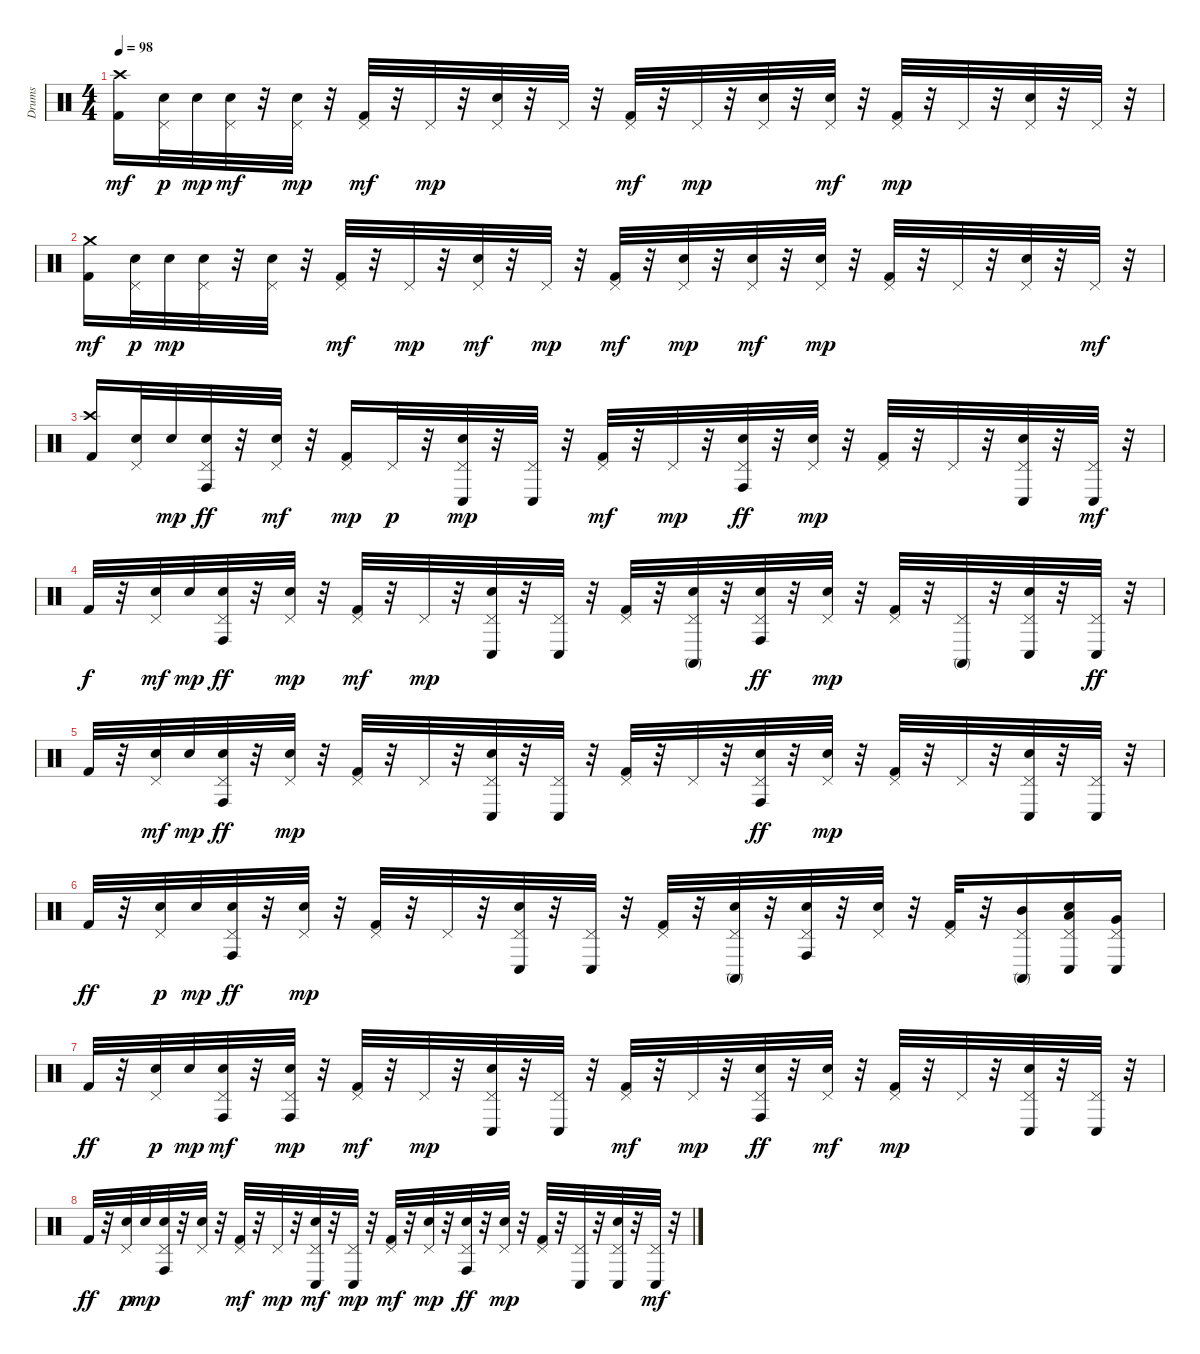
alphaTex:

\track ("Drums" "Drums") {instrument percussion}
\staff {score}
\articulation defaults
\ts (4 4)
\tempo 98
\clef neutral
\ks c
("Kick (hit) 2" "Crash high (hit)").16{dy mf} ("Electric Snare (hit)" "Pedal Hi-Hat (hit)").32{dy p} "Electric Snare (hit)".32{dy mp} ("Electric Snare (hit)" "Pedal Hi-Hat (hit)").32{dy mf} r.32 ("Electric Snare (hit)" "Pedal Hi-Hat (hit)").32{dy mp} r.32 ("Kick (hit) 2" "Pedal Hi-Hat (hit)").32{dy mf} r.32 "Pedal Hi-Hat (hit)".32{dy mp} r.32 ("Electric Snare (hit)" "Pedal Hi-Hat (hit)").32 r.32 "Pedal Hi-Hat (hit)".32 r.32 ("Kick (hit) 2" "Pedal Hi-Hat (hit)").32{dy mf} r.32 "Pedal Hi-Hat (hit)".32{dy mp} r.32 ("Electric Snare (hit)" "Pedal Hi-Hat (hit)").32 r.32 ("Electric Snare (hit)" "Pedal Hi-Hat (hit)").32{dy mf} r.32 ("Kick (hit) 2" "Pedal Hi-Hat (hit)").32{dy mp} r.32 "Pedal Hi-Hat (hit)".32 r.32 ("Electric Snare (hit)" "Pedal Hi-Hat (hit)").32 r.32 "Pedal Hi-Hat (hit)".32 r.32 |
("Kick (hit) 2" "Crash medium (hit)").16{dy mf} ("Electric Snare (hit)" "Pedal Hi-Hat (hit)").32{dy p} "Electric Snare (hit)".32{dy mp} ("Electric Snare (hit)" "Pedal Hi-Hat (hit)").32 r.32 ("Electric Snare (hit)" "Pedal Hi-Hat (hit)").32 r.32 ("Kick (hit) 2" "Pedal Hi-Hat (hit)").32{dy mf} r.32 "Pedal Hi-Hat (hit)".32{dy mp} r.32 ("Electric Snare (hit)" "Pedal Hi-Hat (hit)").32{dy mf} r.32 "Pedal Hi-Hat (hit)".32{dy mp} r.32 ("Kick (hit) 2" "Pedal Hi-Hat (hit)").32{dy mf} r.32 ("Electric Snare (hit)" "Pedal Hi-Hat (hit)").32{dy mp} r.32 ("Electric Snare (hit)" "Pedal Hi-Hat (hit)").32{dy mf} r.32 ("Electric Snare (hit)" "Pedal Hi-Hat (hit)").32{dy mp} r.32 ("Kick (hit) 2" "Pedal Hi-Hat (hit)").32 r.32 "Pedal Hi-Hat (hit)".32 r.32 ("Electric Snare (hit)" "Pedal Hi-Hat (hit)").32 r.32 "Pedal Hi-Hat (hit)".32{dy mf} r.32 |
("Kick (hit) 2" "Crash high (hit)").16 ("Electric Snare (hit)" "Pedal Hi-Hat (hit)").32 "Electric Snare (hit)".32{dy mp} ("Electric Snare (hit)" "Pedal Hi-Hat (hit)" "Conga high (hit)").32{dy ff} r.32 ("Electric Snare (hit)" "Pedal Hi-Hat (hit)").32{dy mf} r.32 ("Kick (hit) 2" "Pedal Hi-Hat (hit)").16{dy mp} "Pedal Hi-Hat (hit)".32{dy p} r.32 ("Electric Snare (hit)" "Pedal Hi-Hat (hit)" "Conga low (hit)").32{dy mp} r.32 ("Pedal Hi-Hat (hit)" "Conga low (hit)").32 r.32 ("Kick (hit) 2" "Pedal Hi-Hat (hit)").32{dy mf} r.32 "Pedal Hi-Hat (hit)".32{dy mp} r.32 ("Electric Snare (hit)" "Pedal Hi-Hat (hit)" "Conga high (hit)").32{dy ff} r.32 ("Electric Snare (hit)" "Pedal Hi-Hat (hit)").32{dy mp} r.32 ("Kick (hit) 2" "Pedal Hi-Hat (hit)").32 r.32 "Pedal Hi-Hat (hit)".32 r.32 ("Electric Snare (hit)" "Pedal Hi-Hat (hit)" "Conga low (hit)").32 r.32 ("Pedal Hi-Hat (hit)" "Conga low (hit)").32{dy mf} r.32 |
"Kick (hit) 2".32{dy f} r.32 ("Electric Snare (hit)" "Pedal Hi-Hat (hit)").32{dy mf} "Electric Snare (hit)".32{dy mp} ("Electric Snare (hit)" "Pedal Hi-Hat (hit)" "Conga high (hit)").32{dy ff} r.32 ("Electric Snare (hit)" "Pedal Hi-Hat (hit)").32{dy mp} r.32 ("Kick (hit) 2" "Pedal Hi-Hat (hit)").32{dy mf} r.32 "Pedal Hi-Hat (hit)".32{dy mp} r.32 ("Electric Snare (hit)" "Pedal Hi-Hat (hit)" "Conga low (hit)").32 r.32 ("Pedal Hi-Hat (hit)" "Conga low (hit)").32 r.32 ("Kick (hit) 2" "Pedal Hi-Hat (hit)").32 r.32 ("Electric Snare (hit)" "Pedal Hi-Hat (hit)" "Conga high (mute)").32{volume 12} r.32 ("Electric Snare (hit)" "Pedal Hi-Hat (hit)" "Conga high (hit)").32{dy ff} r.32 ("Electric Snare (hit)" "Pedal Hi-Hat (hit)").32{dy mp} r.32 ("Kick (hit) 2" "Pedal Hi-Hat (hit)").32 r.32 ("Pedal Hi-Hat (hit)" "Conga high (mute)").32 r.32 ("Electric Snare (hit)" "Pedal Hi-Hat (hit)" "Conga low (hit)").32 r.32 ("Pedal Hi-Hat (hit)" "Conga low (hit)").32{dy ff} r.32 |
"Kick (hit) 2".32 r.32 ("Electric Snare (hit)" "Pedal Hi-Hat (hit)").32{dy mf} "Electric Snare (hit)".32{dy mp} ("Electric Snare (hit)" "Pedal Hi-Hat (hit)" "Conga high (hit)").32{dy ff} r.32 ("Electric Snare (hit)" "Pedal Hi-Hat (hit)").32{dy mp} r.32 ("Kick (hit) 2" "Pedal Hi-Hat (hit)").32 r.32 "Pedal Hi-Hat (hit)".32 r.32 ("Electric Snare (hit)" "Pedal Hi-Hat (hit)" "Conga low (hit)").32 r.32 ("Pedal Hi-Hat (hit)" "Conga low (hit)").32 r.32 ("Kick (hit) 2" "Pedal Hi-Hat (hit)").32 r.32 "Pedal Hi-Hat (hit)".32 r.32 ("Electric Snare (hit)" "Pedal Hi-Hat (hit)" "Conga high (hit)").32{dy ff} r.32 ("Electric Snare (hit)" "Pedal Hi-Hat (hit)").32{dy mp} r.32 ("Kick (hit) 2" "Pedal Hi-Hat (hit)").32 r.32 "Pedal Hi-Hat (hit)".32 r.32 ("Electric Snare (hit)" "Pedal Hi-Hat (hit)" "Conga low (hit)").32 r.32 ("Pedal Hi-Hat (hit)" "Conga low (hit)").32 r.32 |
"Kick (hit) 2".32{dy ff} r.32 ("Electric Snare (hit)" "Pedal Hi-Hat (hit)").32{dy p} "Electric Snare (hit)".32{dy mp} ("Electric Snare (hit)" "Pedal Hi-Hat (hit)" "Conga high (hit)").32{dy ff} r.32 ("Electric Snare (hit)" "Pedal Hi-Hat (hit)").32{dy mp} r.32 ("Kick (hit) 2" "Pedal Hi-Hat (hit)").32 r.32 "Pedal Hi-Hat (hit)".32 r.32 ("Electric Snare (hit)" "Pedal Hi-Hat (hit)" "Conga low (hit)").32 r.32 ("Pedal Hi-Hat (hit)" "Conga low (hit)").32 r.32 ("Kick (hit) 2" "Pedal Hi-Hat (hit)").32 r.32 ("Electric Snare (hit)" "Pedal Hi-Hat (hit)" "Conga high (mute)").32 r.32 ("Electric Snare (hit)" "Pedal Hi-Hat (hit)" "Conga high (hit)").32 r.32 ("Electric Snare (hit)" "Pedal Hi-Hat (hit)").32 r.32 ("Kick (hit) 2" "Pedal Hi-Hat (hit)").32 r.32 ("Pedal Hi-Hat (hit)" "Mid Tom (hit)" "Conga high (mute)").16 ("Electric Snare (hit)" "Pedal Hi-Hat (hit)" "Low Tom (hit)" "Conga low (hit)").16 ("Pedal Hi-Hat (hit)" "Very Low Tom (hit)" "Conga low (hit)").16 |
"Kick (hit) 2".32{dy ff} r.32 ("Electric Snare (hit)" "Pedal Hi-Hat (hit)").32{dy p} "Electric Snare (hit)".32{dy mp} ("Electric Snare (hit)" "Pedal Hi-Hat (hit)" "Conga high (hit)").32{dy mf} r.32 ("Electric Snare (hit)" "Pedal Hi-Hat (hit)" "Conga high (hit)").32{dy mp} r.32 ("Kick (hit) 2" "Pedal Hi-Hat (hit)").32{dy mf} r.32 "Pedal Hi-Hat (hit)".32{dy mp} r.32 ("Electric Snare (hit)" "Pedal Hi-Hat (hit)" "Conga low (hit)").32 r.32 ("Pedal Hi-Hat (hit)" "Conga low (hit)").32 r.32 ("Kick (hit) 2" "Pedal Hi-Hat (hit)").32{dy mf} r.32 "Pedal Hi-Hat (hit)".32{dy mp} r.32 ("Electric Snare (hit)" "Pedal Hi-Hat (hit)" "Conga high (hit)").32{dy ff} r.32 ("Electric Snare (hit)" "Pedal Hi-Hat (hit)").32{dy mf} r.32 ("Kick (hit) 2" "Pedal Hi-Hat (hit)").32{dy mp} r.32 "Pedal Hi-Hat (hit)".32 r.32 ("Electric Snare (hit)" "Pedal Hi-Hat (hit)" "Conga low (hit)").32 r.32 ("Pedal Hi-Hat (hit)" "Conga low (hit)").32 r.32 |
"Kick (hit) 2".32{dy ff} r.32 ("Electric Snare (hit)" "Pedal Hi-Hat (hit)").32{dy p} "Electric Snare (hit)".32{dy mp} ("Electric Snare (hit)" "Pedal Hi-Hat (hit)" "Conga high (hit)").32 r.32 ("Electric Snare (hit)" "Pedal Hi-Hat (hit)").32 r.32 ("Kick (hit) 2" "Pedal Hi-Hat (hit)").32{dy mf} r.32 "Pedal Hi-Hat (hit)".32{dy mp} r.32 ("Electric Snare (hit)" "Pedal Hi-Hat (hit)" "Conga low (hit)").32{dy mf} r.32 ("Pedal Hi-Hat (hit)" "Conga low (hit)").32{dy mp} r.32 ("Kick (hit) 2" "Pedal Hi-Hat (hit)").32{dy mf} r.32 ("Electric Snare (hit)" "Pedal Hi-Hat (hit)").32{dy mp} r.32 ("Electric Snare (hit)" "Pedal Hi-Hat (hit)" "Conga high (hit)").32{dy ff} r.32 ("Electric Snare (hit)" "Pedal Hi-Hat (hit)").32{dy mp} r.32 ("Kick (hit) 2" "Pedal Hi-Hat (hit)").32 r.32 ("Pedal Hi-Hat (hit)" "Conga low (hit)").32 r.32 ("Electric Snare (hit)" "Pedal Hi-Hat (hit)" "Conga low (hit)").32 r.32 ("Pedal Hi-Hat (hit)" "Conga low (hit)").32{dy mf} r.32
